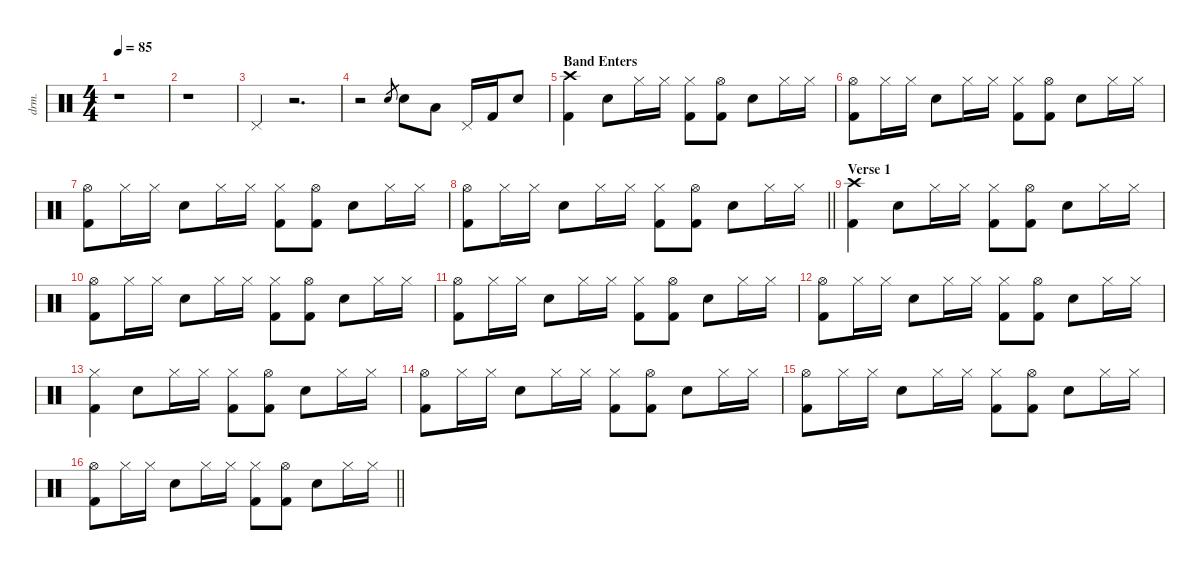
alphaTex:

\defaultSystemsLayout 4
\hideDynamics
\bracketExtendMode nobrackets
\otherSystemsTrackNameOrientation horizontal
\track ("Drums" "drm.") {defaultSystemsLayout 4 instrument percussion}
\staff {score}
\articulation defaults
\ts (4 4)
\beaming (8 2 2 2 2)
\tempo 85
\clef neutral
\ks c
r.1{dy f} |
r.1 |
"Pedal Hi-Hat (hit)".4 r.2{d} |
r.2 "Electric Snare (hit)".8{gr dy mp} "Snare (hit) 2".8{dy f} "Low Tom (hit)".8{dy fff} "Pedal Hi-Hat (hit)".16{dy f} "Kick (hit) 2".16 "Snare (hit) 2".8 |
\section ("" "Band Enters")
("Crash high (hit)" "Kick (hit) 2").4 "Snare (hit) 2".8 "Hi-Hat (closed)".16 "Hi-Hat (closed)".16 ("Hi-Hat (closed)" "Kick (hit) 2").8 ("Hi-Hat (open)" "Kick (hit) 2").8 "Snare (hit) 2".8 "Hi-Hat (closed)".16 "Hi-Hat (closed)".16 |
("Hi-Hat (open)" "Kick (hit) 2").8 "Hi-Hat (closed)".16 "Hi-Hat (closed)".16 "Snare (hit) 2".8 "Hi-Hat (closed)".16 "Hi-Hat (closed)".16 ("Hi-Hat (closed)" "Kick (hit) 2").8 ("Hi-Hat (open)" "Kick (hit) 2").8 "Snare (hit) 2".8 "Hi-Hat (closed)".16 "Hi-Hat (closed)".16 |
("Hi-Hat (open)" "Kick (hit) 2").8 "Hi-Hat (closed)".16 "Hi-Hat (closed)".16 "Snare (hit) 2".8 "Hi-Hat (closed)".16 "Hi-Hat (closed)".16 ("Hi-Hat (closed)" "Kick (hit) 2").8 ("Hi-Hat (open)" "Kick (hit) 2").8 "Snare (hit) 2".8 "Hi-Hat (closed)".16 "Hi-Hat (closed)".16 |
\barLineRight lightlight
("Hi-Hat (open)" "Kick (hit) 2").8 "Hi-Hat (closed)".16 "Hi-Hat (closed)".16 "Snare (hit) 2".8 "Hi-Hat (closed)".16 "Hi-Hat (closed)".16 ("Hi-Hat (closed)" "Kick (hit) 2").8 ("Hi-Hat (open)" "Kick (hit) 2").8 "Snare (hit) 2".8 "Hi-Hat (closed)".16 "Hi-Hat (closed)".16 |
\section ("" "Verse 1")
("Crash high (hit)" "Kick (hit) 2").4 "Snare (hit) 2".8 "Hi-Hat (closed)".16 "Hi-Hat (closed)".16 ("Hi-Hat (closed)" "Kick (hit) 2").8 ("Hi-Hat (open)" "Kick (hit) 2").8 "Snare (hit) 2".8 "Hi-Hat (closed)".16 "Hi-Hat (closed)".16 |
("Hi-Hat (open)" "Kick (hit) 2").8 "Hi-Hat (closed)".16 "Hi-Hat (closed)".16 "Snare (hit) 2".8 "Hi-Hat (closed)".16 "Hi-Hat (closed)".16 ("Hi-Hat (closed)" "Kick (hit) 2").8 ("Hi-Hat (open)" "Kick (hit) 2").8 "Snare (hit) 2".8 "Hi-Hat (closed)".16 "Hi-Hat (closed)".16 |
("Hi-Hat (open)" "Kick (hit) 2").8 "Hi-Hat (closed)".16 "Hi-Hat (closed)".16 "Snare (hit) 2".8 "Hi-Hat (closed)".16 "Hi-Hat (closed)".16 ("Hi-Hat (closed)" "Kick (hit) 2").8 ("Hi-Hat (open)" "Kick (hit) 2").8 "Snare (hit) 2".8 "Hi-Hat (closed)".16 "Hi-Hat (closed)".16 |
("Hi-Hat (open)" "Kick (hit) 2").8 "Hi-Hat (closed)".16 "Hi-Hat (closed)".16 "Snare (hit) 2".8 "Hi-Hat (closed)".16 "Hi-Hat (closed)".16 ("Hi-Hat (closed)" "Kick (hit) 2").8 ("Hi-Hat (open)" "Kick (hit) 2").8 "Snare (hit) 2".8 "Hi-Hat (closed)".16 "Hi-Hat (closed)".16 |
("Hi-Hat (closed)" "Kick (hit) 2").4 "Snare (hit) 2".8 "Hi-Hat (closed)".16 "Hi-Hat (closed)".16 ("Hi-Hat (closed)" "Kick (hit) 2").8 ("Hi-Hat (open)" "Kick (hit) 2").8 "Snare (hit) 2".8 "Hi-Hat (closed)".16 "Hi-Hat (closed)".16 |
("Hi-Hat (open)" "Kick (hit) 2").8 "Hi-Hat (closed)".16 "Hi-Hat (closed)".16 "Snare (hit) 2".8 "Hi-Hat (closed)".16 "Hi-Hat (closed)".16 ("Hi-Hat (closed)" "Kick (hit) 2").8 ("Hi-Hat (open)" "Kick (hit) 2").8 "Snare (hit) 2".8 "Hi-Hat (closed)".16 "Hi-Hat (closed)".16 |
("Hi-Hat (open)" "Kick (hit) 2").8 "Hi-Hat (closed)".16 "Hi-Hat (closed)".16 "Snare (hit) 2".8 "Hi-Hat (closed)".16 "Hi-Hat (closed)".16 ("Hi-Hat (closed)" "Kick (hit) 2").8 ("Hi-Hat (open)" "Kick (hit) 2").8 "Snare (hit) 2".8 "Hi-Hat (closed)".16 "Hi-Hat (closed)".16 |
\barLineRight lightlight
("Hi-Hat (open)" "Kick (hit) 2").8 "Hi-Hat (closed)".16 "Hi-Hat (closed)".16 "Snare (hit) 2".8 "Hi-Hat (closed)".16 "Hi-Hat (closed)".16 ("Hi-Hat (closed)" "Kick (hit) 2").8 ("Hi-Hat (open)" "Kick (hit) 2").8 "Snare (hit) 2".8 "Hi-Hat (closed)".16 "Hi-Hat (closed)".16
